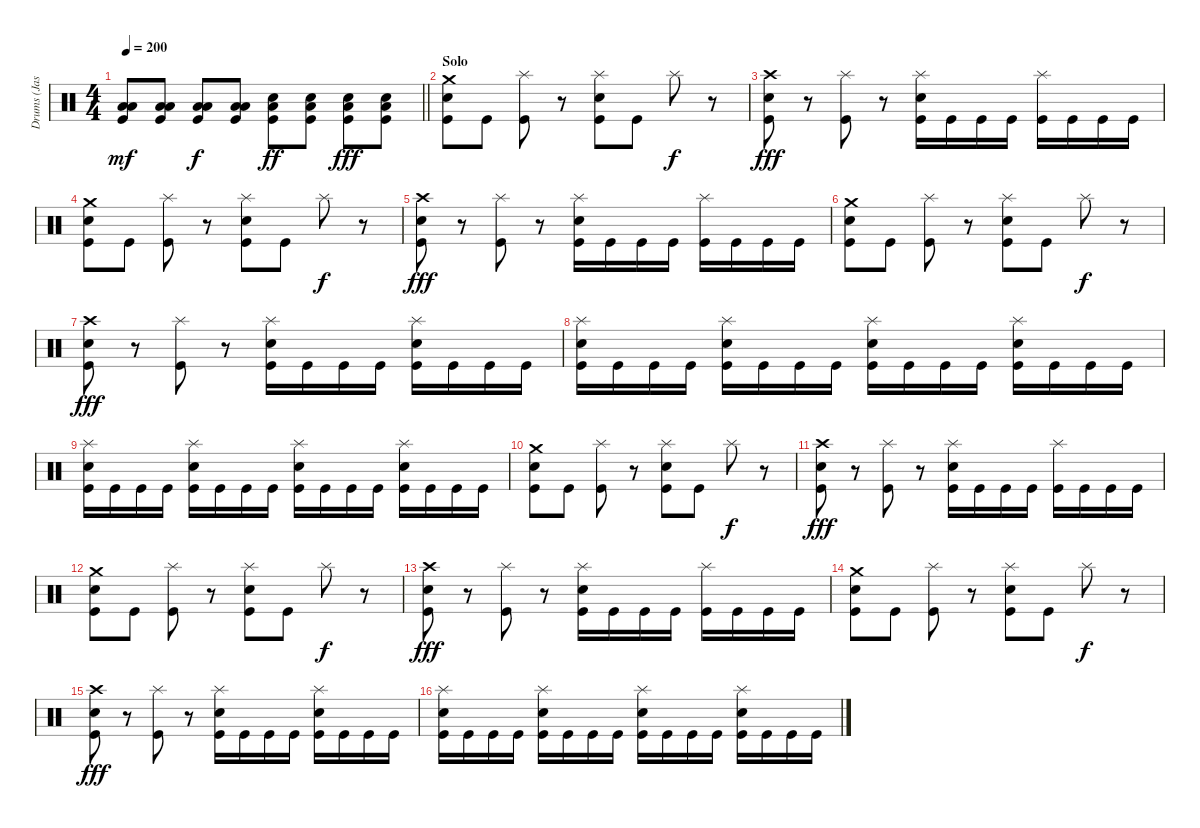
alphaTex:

\track ("Drums (Jason Costa)" "Drums (Jas") {instrument percussion}
\staff {score}
\articulation defaults
\ts (4 4)
\tempo 200
\clef neutral
\barLineRight lightlight
\ks c
("Low Tom (hit)" "Low Floor Tom (hit)" "Kick (hit)").8{dy mf} ("Low Tom (hit)" "Low Floor Tom (hit)" "Kick (hit)").8 ("Low Tom (hit)" "Low Floor Tom (hit)" "Kick (hit)").8{dy f} ("Low Tom (hit)" "Low Floor Tom (hit)" "Kick (hit)").8 ("Low Tom (hit)" "Electric Snare (hit)" "Kick (hit)").8{dy ff} ("Low Tom (hit)" "Electric Snare (hit)" "Kick (hit)").8 ("Low Tom (hit)" "Electric Snare (hit)" "Kick (hit)").8{dy fff} ("Low Tom (hit)" "Electric Snare (hit)" "Kick (hit)").8 |
\section ("" "Solo")
("Crash medium (hit)" "Electric Snare (hit)" "Kick (hit)").8 "Kick (hit)".8 ("Splash (hit)" "Kick (hit)").8 r.8 ("Splash (hit)" "Electric Snare (hit)" "Kick (hit)").8 "Kick (hit)".8 "Splash (hit)".8{dy f} r.8 |
("Crash high (hit)" "Electric Snare (hit)" "Kick (hit)").8{dy fff} r.8 ("Splash (hit)" "Kick (hit)").8 r.8 ("Splash (hit)" "Electric Snare (hit)" "Kick (hit)").16 "Kick (hit)".16 "Kick (hit)".16 "Kick (hit)".16 ("Splash (hit)" "Kick (hit)").16 "Kick (hit)".16 "Kick (hit)".16 "Kick (hit)".16 |
("Crash medium (hit)" "Electric Snare (hit)" "Kick (hit)").8 "Kick (hit)".8 ("Splash (hit)" "Kick (hit)").8 r.8 ("Splash (hit)" "Electric Snare (hit)" "Kick (hit)").8 "Kick (hit)".8 "Splash (hit)".8{dy f} r.8 |
("Crash high (hit)" "Electric Snare (hit)" "Kick (hit)").8{dy fff} r.8 ("Splash (hit)" "Kick (hit)").8 r.8 ("Splash (hit)" "Electric Snare (hit)" "Kick (hit)").16 "Kick (hit)".16 "Kick (hit)".16 "Kick (hit)".16 ("Splash (hit)" "Kick (hit)").16 "Kick (hit)".16 "Kick (hit)".16 "Kick (hit)".16 |
("Crash medium (hit)" "Electric Snare (hit)" "Kick (hit)").8 "Kick (hit)".8 ("Splash (hit)" "Kick (hit)").8 r.8 ("Splash (hit)" "Electric Snare (hit)" "Kick (hit)").8 "Kick (hit)".8 "Splash (hit)".8{dy f} r.8 |
("Crash high (hit)" "Electric Snare (hit)" "Kick (hit)").8{dy fff} r.8 ("Splash (hit)" "Kick (hit)").8 r.8 ("Splash (hit)" "Electric Snare (hit)" "Kick (hit)").16 "Kick (hit)".16 "Kick (hit)".16 "Kick (hit)".16 ("Splash (hit)" "Electric Snare (hit)" "Kick (hit)").16 "Kick (hit)".16 "Kick (hit)".16 "Kick (hit)".16 |
("Splash (hit)" "Electric Snare (hit)" "Kick (hit)").16 "Kick (hit)".16 "Kick (hit)".16 "Kick (hit)".16 ("Splash (hit)" "Electric Snare (hit)" "Kick (hit)").16 "Kick (hit)".16 "Kick (hit)".16 "Kick (hit)".16 ("Splash (hit)" "Electric Snare (hit)" "Kick (hit)").16 "Kick (hit)".16 "Kick (hit)".16 "Kick (hit)".16 ("Splash (hit)" "Electric Snare (hit)" "Kick (hit)").16 "Kick (hit)".16 "Kick (hit)".16 "Kick (hit)".16 |
("Splash (hit)" "Electric Snare (hit)" "Kick (hit)").16 "Kick (hit)".16 "Kick (hit)".16 "Kick (hit)".16 ("Splash (hit)" "Electric Snare (hit)" "Kick (hit)").16 "Kick (hit)".16 "Kick (hit)".16 "Kick (hit)".16 ("Splash (hit)" "Electric Snare (hit)" "Kick (hit)").16 "Kick (hit)".16 "Kick (hit)".16 "Kick (hit)".16 ("Splash (hit)" "Electric Snare (hit)" "Kick (hit)").16 "Kick (hit)".16 "Kick (hit)".16 "Kick (hit)".16 |
("Crash medium (hit)" "Electric Snare (hit)" "Kick (hit)").8 "Kick (hit)".8 ("Splash (hit)" "Kick (hit)").8 r.8 ("Splash (hit)" "Electric Snare (hit)" "Kick (hit)").8 "Kick (hit)".8 "Splash (hit)".8{dy f} r.8 |
("Crash high (hit)" "Electric Snare (hit)" "Kick (hit)").8{dy fff} r.8 ("Splash (hit)" "Kick (hit)").8 r.8 ("Splash (hit)" "Electric Snare (hit)" "Kick (hit)").16 "Kick (hit)".16 "Kick (hit)".16 "Kick (hit)".16 ("Splash (hit)" "Kick (hit)").16 "Kick (hit)".16 "Kick (hit)".16 "Kick (hit)".16 |
("Crash medium (hit)" "Electric Snare (hit)" "Kick (hit)").8 "Kick (hit)".8 ("Splash (hit)" "Kick (hit)").8 r.8 ("Splash (hit)" "Electric Snare (hit)" "Kick (hit)").8 "Kick (hit)".8 "Splash (hit)".8{dy f} r.8 |
("Crash high (hit)" "Electric Snare (hit)" "Kick (hit)").8{dy fff} r.8 ("Splash (hit)" "Kick (hit)").8 r.8 ("Splash (hit)" "Electric Snare (hit)" "Kick (hit)").16 "Kick (hit)".16 "Kick (hit)".16 "Kick (hit)".16 ("Splash (hit)" "Kick (hit)").16 "Kick (hit)".16 "Kick (hit)".16 "Kick (hit)".16 |
("Crash medium (hit)" "Electric Snare (hit)" "Kick (hit)").8 "Kick (hit)".8 ("Splash (hit)" "Kick (hit)").8 r.8 ("Splash (hit)" "Electric Snare (hit)" "Kick (hit)").8 "Kick (hit)".8 "Splash (hit)".8{dy f} r.8 |
("Crash high (hit)" "Electric Snare (hit)" "Kick (hit)").8{dy fff} r.8 ("Splash (hit)" "Kick (hit)").8 r.8 ("Splash (hit)" "Electric Snare (hit)" "Kick (hit)").16 "Kick (hit)".16 "Kick (hit)".16 "Kick (hit)".16 ("Splash (hit)" "Electric Snare (hit)" "Kick (hit)").16 "Kick (hit)".16 "Kick (hit)".16 "Kick (hit)".16 |
("Splash (hit)" "Electric Snare (hit)" "Kick (hit)").16 "Kick (hit)".16 "Kick (hit)".16 "Kick (hit)".16 ("Splash (hit)" "Electric Snare (hit)" "Kick (hit)").16 "Kick (hit)".16 "Kick (hit)".16 "Kick (hit)".16 ("Splash (hit)" "Electric Snare (hit)" "Kick (hit)").16 "Kick (hit)".16 "Kick (hit)".16 "Kick (hit)".16 ("Splash (hit)" "Electric Snare (hit)" "Kick (hit)").16 "Kick (hit)".16 "Kick (hit)".16 "Kick (hit)".16
